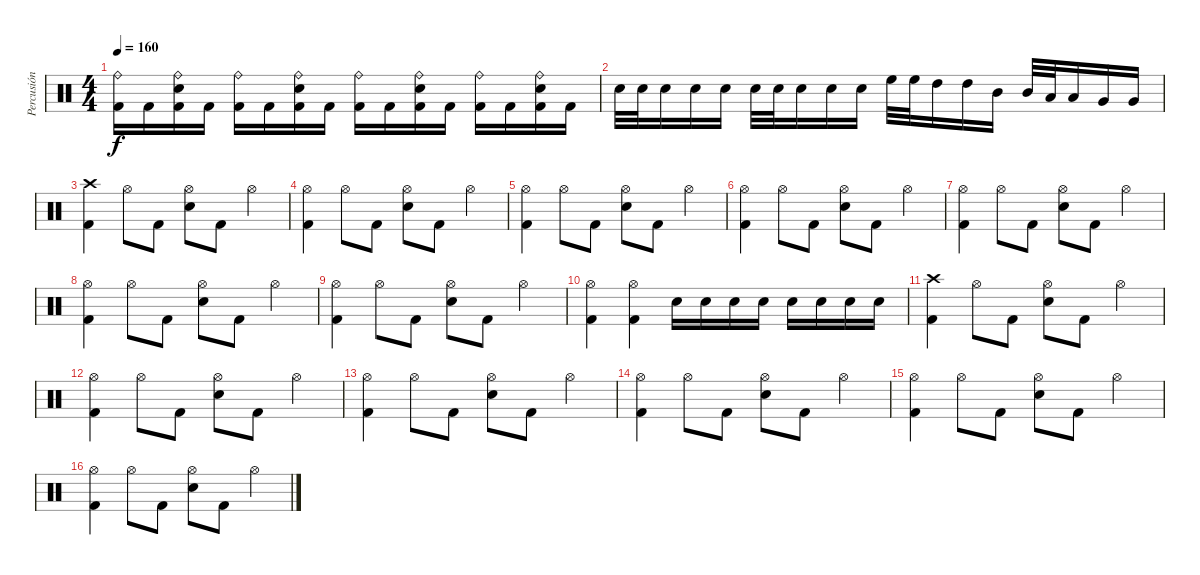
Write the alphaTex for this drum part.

\track ("Percusión" "Percusión") {instrument percussion}
\staff {score}
\articulation defaults
\ts (4 4)
\tempo 160
\clef neutral
\ks c
("Ride (bell)" "Kick (hit) 2").16{dy f} "Kick (hit) 2".16 ("Ride (bell)" "Snare (hit) 2" "Kick (hit) 2").16 "Kick (hit) 2".16 ("Ride (bell)" "Kick (hit) 2").16 "Kick (hit) 2".16 ("Ride (bell)" "Snare (hit) 2" "Kick (hit) 2").16 "Kick (hit) 2".16 ("Ride (bell)" "Kick (hit) 2").16 "Kick (hit) 2".16 ("Ride (bell)" "Snare (hit) 2" "Kick (hit) 2").16 "Kick (hit) 2".16 ("Ride (bell)" "Kick (hit) 2").16 "Kick (hit) 2".16 ("Ride (bell)" "Snare (hit) 2" "Kick (hit) 2").16 "Kick (hit) 2".16 |
"Snare (hit) 2".32 "Snare (hit) 2".32 "Snare (hit) 2".16 "Snare (hit) 2".16 "Snare (hit) 2".16 "Snare (hit) 2".32 "Snare (hit) 2".32 "Snare (hit) 2".16 "Snare (hit) 2".16 "Snare (hit) 2".16 "High Floor Tom (hit)".32 "High Floor Tom (hit)".32 "High Tom (hit)".16 "High Tom (hit)".16 "Mid Tom (hit)".16 "Mid Tom (hit)".32 "Low Tom (hit)".32 "Low Tom (hit)".16 "Very Low Tom (hit)".16 "Very Low Tom (hit)".16 |
("Crash high (hit)" "Kick (hit) 2").4 "Hi-Hat (open)".8 "Kick (hit) 2".8 ("Hi-Hat (open)" "Snare (hit) 2").8 "Kick (hit) 2".8 "Hi-Hat (open)".4 |
("Hi-Hat (open)" "Kick (hit) 2").4 "Hi-Hat (open)".8 "Kick (hit) 2".8 ("Hi-Hat (open)" "Snare (hit) 2").8 "Kick (hit) 2".8 "Hi-Hat (open)".4 |
("Hi-Hat (open)" "Kick (hit) 2").4 "Hi-Hat (open)".8 "Kick (hit) 2".8 ("Hi-Hat (open)" "Snare (hit) 2").8 "Kick (hit) 2".8 "Hi-Hat (open)".4 |
("Hi-Hat (open)" "Kick (hit) 2").4 "Hi-Hat (open)".8 "Kick (hit) 2".8 ("Hi-Hat (open)" "Snare (hit) 2").8 "Kick (hit) 2".8 "Hi-Hat (open)".4 |
("Hi-Hat (open)" "Kick (hit) 2").4 "Hi-Hat (open)".8 "Kick (hit) 2".8 ("Hi-Hat (open)" "Snare (hit) 2").8 "Kick (hit) 2".8 "Hi-Hat (open)".4 |
("Hi-Hat (open)" "Kick (hit) 2").4 "Hi-Hat (open)".8 "Kick (hit) 2".8 ("Hi-Hat (open)" "Snare (hit) 2").8 "Kick (hit) 2".8 "Hi-Hat (open)".4 |
("Hi-Hat (open)" "Kick (hit) 2").4 "Hi-Hat (open)".8 "Kick (hit) 2".8 ("Hi-Hat (open)" "Snare (hit) 2").8 "Kick (hit) 2".8 "Hi-Hat (open)".4 |
("Hi-Hat (open)" "Kick (hit) 2").4 ("Hi-Hat (open)" "Kick (hit) 2").4 "Snare (hit) 2".16 "Snare (hit) 2".16 "Snare (hit) 2".16 "Snare (hit) 2".16 "Snare (hit) 2".16 "Snare (hit) 2".16 "Snare (hit) 2".16 "Snare (hit) 2".16 |
("Crash high (hit)" "Kick (hit) 2").4 "Hi-Hat (open)".8 "Kick (hit) 2".8 ("Hi-Hat (open)" "Snare (hit) 2").8 "Kick (hit) 2".8 "Hi-Hat (open)".4 |
("Hi-Hat (open)" "Kick (hit) 2").4 "Hi-Hat (open)".8 "Kick (hit) 2".8 ("Hi-Hat (open)" "Snare (hit) 2").8 "Kick (hit) 2".8 "Hi-Hat (open)".4 |
("Hi-Hat (open)" "Kick (hit) 2").4 "Hi-Hat (open)".8 "Kick (hit) 2".8 ("Hi-Hat (open)" "Snare (hit) 2").8 "Kick (hit) 2".8 "Hi-Hat (open)".4 |
("Hi-Hat (open)" "Kick (hit) 2").4 "Hi-Hat (open)".8 "Kick (hit) 2".8 ("Hi-Hat (open)" "Snare (hit) 2").8 "Kick (hit) 2".8 "Hi-Hat (open)".4 |
("Hi-Hat (open)" "Kick (hit) 2").4 "Hi-Hat (open)".8 "Kick (hit) 2".8 ("Hi-Hat (open)" "Snare (hit) 2").8 "Kick (hit) 2".8 "Hi-Hat (open)".4 |
("Hi-Hat (open)" "Kick (hit) 2").4 "Hi-Hat (open)".8 "Kick (hit) 2".8 ("Hi-Hat (open)" "Snare (hit) 2").8 "Kick (hit) 2".8 "Hi-Hat (open)".4
